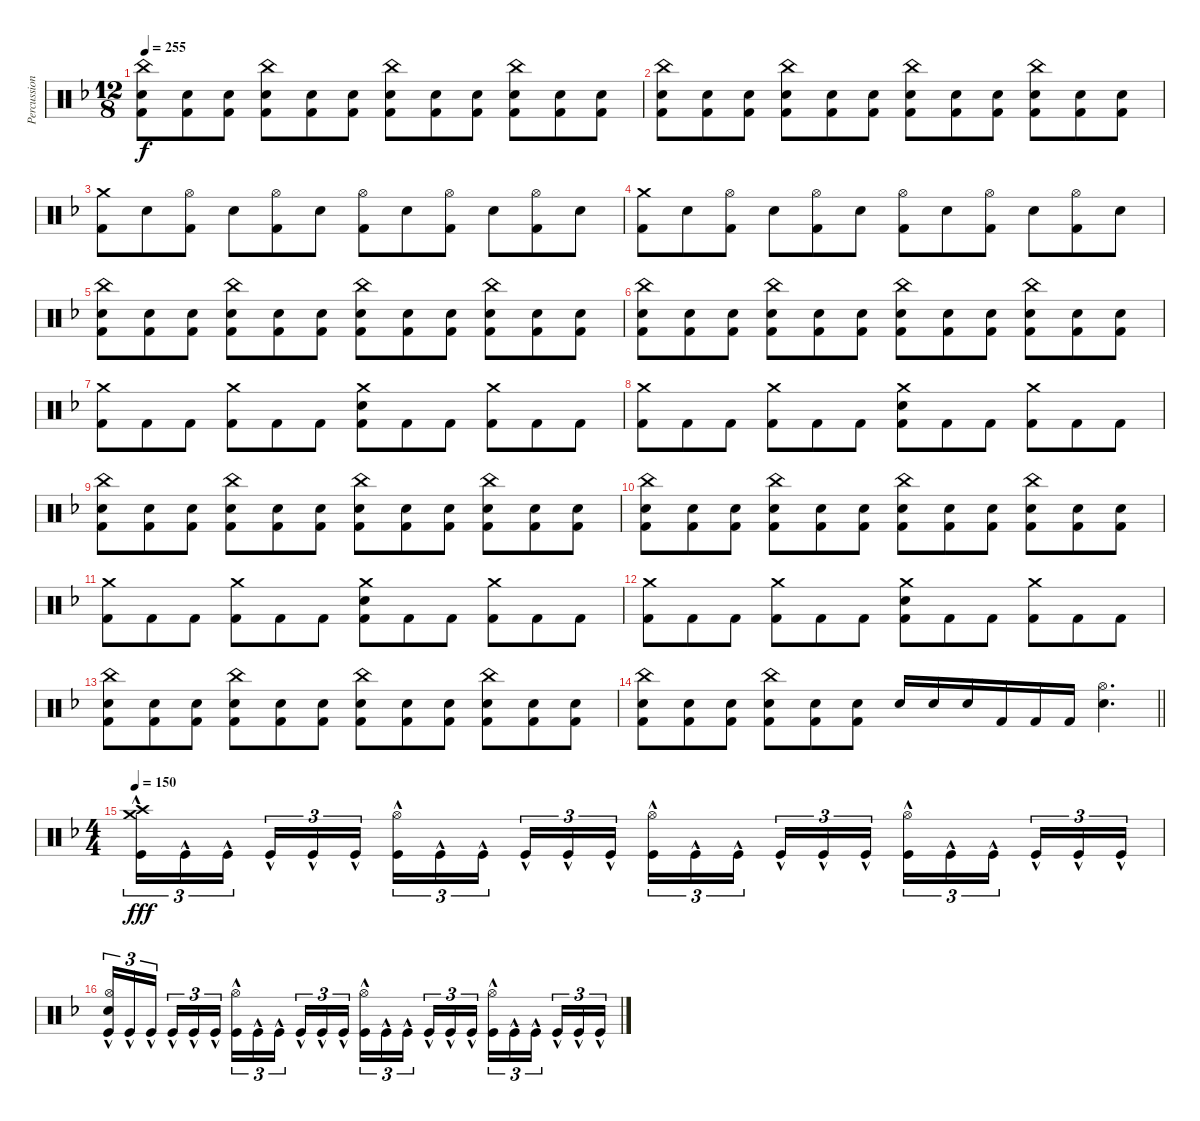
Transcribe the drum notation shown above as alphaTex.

\track ("Percussion" "Percussion") {instrument percussion}
\staff {score}
\articulation defaults
\ts (12 8)
\tempo 255
\clef neutral
\ks dminor
("China (hit)" "Electric Snare (hit)" "Kick (hit) 2").8{dy f} ("Electric Snare (hit)" "Kick (hit) 2").8 ("Electric Snare (hit)" "Kick (hit) 2").8 ("China (hit)" "Electric Snare (hit)" "Kick (hit) 2").8 ("Electric Snare (hit)" "Kick (hit) 2").8 ("Electric Snare (hit)" "Kick (hit) 2").8 ("China (hit)" "Electric Snare (hit)" "Kick (hit) 2").8 ("Electric Snare (hit)" "Kick (hit) 2").8 ("Electric Snare (hit)" "Kick (hit) 2").8 ("China (hit)" "Electric Snare (hit)" "Kick (hit) 2").8 ("Electric Snare (hit)" "Kick (hit) 2").8 ("Electric Snare (hit)" "Kick (hit) 2").8 |
("China (hit)" "Electric Snare (hit)" "Kick (hit) 2").8 ("Electric Snare (hit)" "Kick (hit) 2").8 ("Electric Snare (hit)" "Kick (hit) 2").8 ("China (hit)" "Electric Snare (hit)" "Kick (hit) 2").8 ("Electric Snare (hit)" "Kick (hit) 2").8 ("Electric Snare (hit)" "Kick (hit) 2").8 ("China (hit)" "Electric Snare (hit)" "Kick (hit) 2").8 ("Electric Snare (hit)" "Kick (hit) 2").8 ("Electric Snare (hit)" "Kick (hit) 2").8 ("China (hit)" "Electric Snare (hit)" "Kick (hit) 2").8 ("Electric Snare (hit)" "Kick (hit) 2").8 ("Electric Snare (hit)" "Kick (hit) 2").8 |
("Crash medium (hit)" "Kick (hit) 2").8 "Electric Snare (hit)".8 ("Hi-Hat (open)" "Kick (hit) 2").8 "Electric Snare (hit)".8 ("Hi-Hat (open)" "Kick (hit) 2").8 "Electric Snare (hit)".8 ("Hi-Hat (open)" "Kick (hit) 2").8 "Electric Snare (hit)".8 ("Hi-Hat (open)" "Kick (hit) 2").8 "Electric Snare (hit)".8 ("Hi-Hat (open)" "Kick (hit) 2").8 "Electric Snare (hit)".8 |
("Crash medium (hit)" "Kick (hit) 2").8 "Electric Snare (hit)".8 ("Hi-Hat (open)" "Kick (hit) 2").8 "Electric Snare (hit)".8 ("Hi-Hat (open)" "Kick (hit) 2").8 "Electric Snare (hit)".8 ("Hi-Hat (open)" "Kick (hit) 2").8 "Electric Snare (hit)".8 ("Hi-Hat (open)" "Kick (hit) 2").8 "Electric Snare (hit)".8 ("Hi-Hat (open)" "Kick (hit) 2").8 "Electric Snare (hit)".8 |
("China (hit)" "Electric Snare (hit)" "Kick (hit) 2").8 ("Electric Snare (hit)" "Kick (hit) 2").8 ("Electric Snare (hit)" "Kick (hit) 2").8 ("China (hit)" "Electric Snare (hit)" "Kick (hit) 2").8 ("Electric Snare (hit)" "Kick (hit) 2").8 ("Electric Snare (hit)" "Kick (hit) 2").8 ("China (hit)" "Electric Snare (hit)" "Kick (hit) 2").8 ("Electric Snare (hit)" "Kick (hit) 2").8 ("Electric Snare (hit)" "Kick (hit) 2").8 ("China (hit)" "Electric Snare (hit)" "Kick (hit) 2").8 ("Electric Snare (hit)" "Kick (hit) 2").8 ("Electric Snare (hit)" "Kick (hit) 2").8 |
("China (hit)" "Electric Snare (hit)" "Kick (hit) 2").8 ("Electric Snare (hit)" "Kick (hit) 2").8 ("Electric Snare (hit)" "Kick (hit) 2").8 ("China (hit)" "Electric Snare (hit)" "Kick (hit) 2").8 ("Electric Snare (hit)" "Kick (hit) 2").8 ("Electric Snare (hit)" "Kick (hit) 2").8 ("China (hit)" "Electric Snare (hit)" "Kick (hit) 2").8 ("Electric Snare (hit)" "Kick (hit) 2").8 ("Electric Snare (hit)" "Kick (hit) 2").8 ("China (hit)" "Electric Snare (hit)" "Kick (hit) 2").8 ("Electric Snare (hit)" "Kick (hit) 2").8 ("Electric Snare (hit)" "Kick (hit) 2").8 |
("Crash medium (hit)" "Kick (hit) 2").8 "Kick (hit) 2".8 "Kick (hit) 2".8 ("Crash medium (hit)" "Kick (hit) 2").8 "Kick (hit) 2".8 "Kick (hit) 2".8 ("Crash medium (hit)" "Electric Snare (hit)" "Kick (hit) 2").8 "Kick (hit) 2".8 "Kick (hit) 2".8 ("Crash medium (hit)" "Kick (hit) 2").8 "Kick (hit) 2".8 "Kick (hit) 2".8 |
("Crash medium (hit)" "Kick (hit) 2").8 "Kick (hit) 2".8 "Kick (hit) 2".8 ("Crash medium (hit)" "Kick (hit) 2").8 "Kick (hit) 2".8 "Kick (hit) 2".8 ("Crash medium (hit)" "Electric Snare (hit)" "Kick (hit) 2").8 "Kick (hit) 2".8 "Kick (hit) 2".8 ("Crash medium (hit)" "Kick (hit) 2").8 "Kick (hit) 2".8 "Kick (hit) 2".8 |
("China (hit)" "Electric Snare (hit)" "Kick (hit) 2").8 ("Electric Snare (hit)" "Kick (hit) 2").8 ("Electric Snare (hit)" "Kick (hit) 2").8 ("China (hit)" "Electric Snare (hit)" "Kick (hit) 2").8 ("Electric Snare (hit)" "Kick (hit) 2").8 ("Electric Snare (hit)" "Kick (hit) 2").8 ("China (hit)" "Electric Snare (hit)" "Kick (hit) 2").8 ("Electric Snare (hit)" "Kick (hit) 2").8 ("Electric Snare (hit)" "Kick (hit) 2").8 ("China (hit)" "Electric Snare (hit)" "Kick (hit) 2").8 ("Electric Snare (hit)" "Kick (hit) 2").8 ("Electric Snare (hit)" "Kick (hit) 2").8 |
("China (hit)" "Electric Snare (hit)" "Kick (hit) 2").8 ("Electric Snare (hit)" "Kick (hit) 2").8 ("Electric Snare (hit)" "Kick (hit) 2").8 ("China (hit)" "Electric Snare (hit)" "Kick (hit) 2").8 ("Electric Snare (hit)" "Kick (hit) 2").8 ("Electric Snare (hit)" "Kick (hit) 2").8 ("China (hit)" "Electric Snare (hit)" "Kick (hit) 2").8 ("Electric Snare (hit)" "Kick (hit) 2").8 ("Electric Snare (hit)" "Kick (hit) 2").8 ("China (hit)" "Electric Snare (hit)" "Kick (hit) 2").8 ("Electric Snare (hit)" "Kick (hit) 2").8 ("Electric Snare (hit)" "Kick (hit) 2").8 |
("Crash medium (hit)" "Kick (hit) 2").8 "Kick (hit) 2".8 "Kick (hit) 2".8 ("Crash medium (hit)" "Kick (hit) 2").8 "Kick (hit) 2".8 "Kick (hit) 2".8 ("Crash medium (hit)" "Electric Snare (hit)" "Kick (hit) 2").8 "Kick (hit) 2".8 "Kick (hit) 2".8 ("Crash medium (hit)" "Kick (hit) 2").8 "Kick (hit) 2".8 "Kick (hit) 2".8 |
("Crash medium (hit)" "Kick (hit) 2").8 "Kick (hit) 2".8 "Kick (hit) 2".8 ("Crash medium (hit)" "Kick (hit) 2").8 "Kick (hit) 2".8 "Kick (hit) 2".8 ("Crash medium (hit)" "Electric Snare (hit)" "Kick (hit) 2").8 "Kick (hit) 2".8 "Kick (hit) 2".8 ("Crash medium (hit)" "Kick (hit) 2").8 "Kick (hit) 2".8 "Kick (hit) 2".8 |
("China (hit)" "Electric Snare (hit)" "Kick (hit) 2").8 ("Electric Snare (hit)" "Kick (hit) 2").8 ("Electric Snare (hit)" "Kick (hit) 2").8 ("China (hit)" "Electric Snare (hit)" "Kick (hit) 2").8 ("Electric Snare (hit)" "Kick (hit) 2").8 ("Electric Snare (hit)" "Kick (hit) 2").8 ("China (hit)" "Electric Snare (hit)" "Kick (hit) 2").8 ("Electric Snare (hit)" "Kick (hit) 2").8 ("Electric Snare (hit)" "Kick (hit) 2").8 ("China (hit)" "Electric Snare (hit)" "Kick (hit) 2").8 ("Electric Snare (hit)" "Kick (hit) 2").8 ("Electric Snare (hit)" "Kick (hit) 2").8 |
\barLineRight lightlight
("China (hit)" "Electric Snare (hit)" "Kick (hit) 2").8 ("Electric Snare (hit)" "Kick (hit) 2").8 ("Electric Snare (hit)" "Kick (hit) 2").8 ("China (hit)" "Electric Snare (hit)" "Kick (hit) 2").8 ("Electric Snare (hit)" "Kick (hit) 2").8 ("Electric Snare (hit)" "Kick (hit) 2").8 "Electric Snare (hit)".16 "Electric Snare (hit)".16 "Electric Snare (hit)".16 "Kick (hit) 2".16 "Kick (hit) 2".16 "Kick (hit) 2".16 ("Hi-Hat (open)" "Electric Snare (hit)").4{d} |
\ts (4 4)
\section ("" "")
\tempo 150
("Crash medium (hit)" "Crash high (hit)" "Kick (hit)"{hac}).16{tu (3 2) dy fff} "Kick (hit)"{hac}.16{tu (3 2)} "Kick (hit)"{hac}.16{tu (3 2) beam splitsecondary} "Kick (hit)"{hac}.16{tu (3 2)} "Kick (hit)"{hac}.16{tu (3 2)} "Kick (hit)"{hac}.16{tu (3 2)} ("Hi-Hat (open)" "Kick (hit)"{hac}).16{tu (3 2)} "Kick (hit)"{hac}.16{tu (3 2)} "Kick (hit)"{hac}.16{tu (3 2) beam splitsecondary} "Kick (hit)"{hac}.16{tu (3 2)} "Kick (hit)"{hac}.16{tu (3 2)} "Kick (hit)"{hac}.16{tu (3 2)} ("Hi-Hat (open)" "Kick (hit)"{hac}).16{tu (3 2)} "Kick (hit)"{hac}.16{tu (3 2)} "Kick (hit)"{hac}.16{tu (3 2) beam splitsecondary} "Kick (hit)"{hac}.16{tu (3 2)} "Kick (hit)"{hac}.16{tu (3 2)} "Kick (hit)"{hac}.16{tu (3 2)} ("Hi-Hat (open)" "Kick (hit)"{hac}).16{tu (3 2)} "Kick (hit)"{hac}.16{tu (3 2)} "Kick (hit)"{hac}.16{tu (3 2) beam splitsecondary} "Kick (hit)"{hac}.16{tu (3 2)} "Kick (hit)"{hac}.16{tu (3 2)} "Kick (hit)"{hac}.16{tu (3 2)} |
("Hi-Hat (open)" "Electric Snare (hit)" "Kick (hit)"{hac}).16{tu (3 2)} "Kick (hit)"{hac}.16{tu (3 2)} "Kick (hit)"{hac}.16{tu (3 2) beam splitsecondary} "Kick (hit)"{hac}.16{tu (3 2)} "Kick (hit)"{hac}.16{tu (3 2)} "Kick (hit)"{hac}.16{tu (3 2)} ("Hi-Hat (open)" "Kick (hit)"{hac}).16{tu (3 2)} "Kick (hit)"{hac}.16{tu (3 2)} "Kick (hit)"{hac}.16{tu (3 2) beam splitsecondary} "Kick (hit)"{hac}.16{tu (3 2)} "Kick (hit)"{hac}.16{tu (3 2)} "Kick (hit)"{hac}.16{tu (3 2)} ("Hi-Hat (open)" "Kick (hit)"{hac}).16{tu (3 2)} "Kick (hit)"{hac}.16{tu (3 2)} "Kick (hit)"{hac}.16{tu (3 2) beam splitsecondary} "Kick (hit)"{hac}.16{tu (3 2)} "Kick (hit)"{hac}.16{tu (3 2)} "Kick (hit)"{hac}.16{tu (3 2)} ("Hi-Hat (open)" "Kick (hit)"{hac}).16{tu (3 2)} "Kick (hit)"{hac}.16{tu (3 2)} "Kick (hit)"{hac}.16{tu (3 2) beam splitsecondary} "Kick (hit)"{hac}.16{tu (3 2)} "Kick (hit)"{hac}.16{tu (3 2)} "Kick (hit)"{hac}.16{tu (3 2)}
